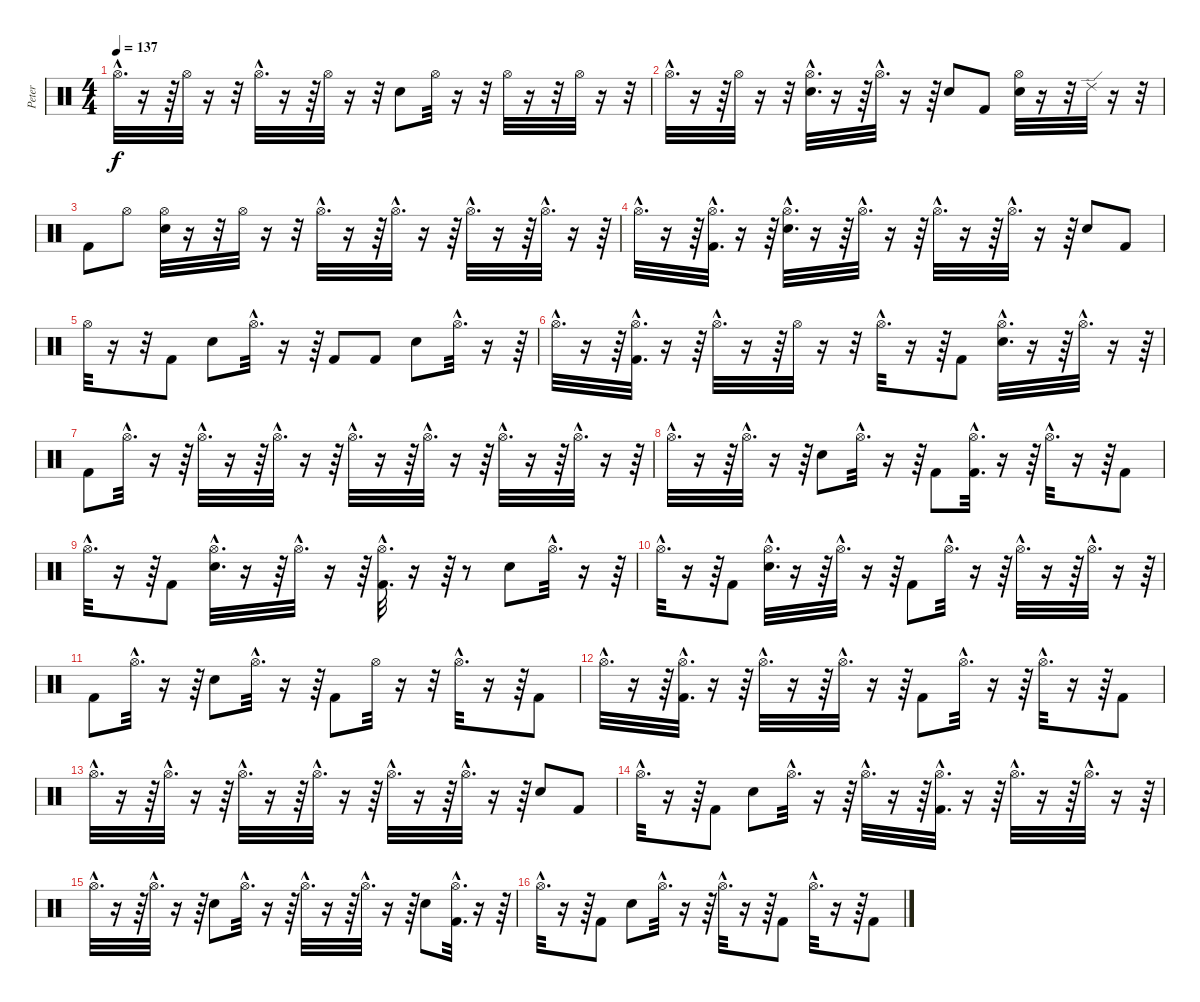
\track ("Peter" "Peter") {instrument percussion}
\staff {score}
\articulation defaults
\ts (4 4)
\tempo 137
\clef neutral
\ks c "Hi-Hat (open)"{hac}.32{d dy f}
r.16 r.64 "Hi-Hat (open)".32 r.16 r.32 "Hi-Hat (open)"{hac}.32{d} r.16 r.64 "Hi-Hat (open)".32 r.16 r.32 "Electric Snare (hit)".8 "Hi-Hat (open)".32 r.16 r.32 "Hi-Hat (open)".32 r.16 r.32 "Hi-Hat (open)".32 r.16 r.32 |
"Hi-Hat (open)"{hac}.32{d} r.16 r.64 "Hi-Hat (open)".32 r.16 r.32 ("Electric Snare (hit)"{hac} "Hi-Hat (open)"{hac}).32{d} r.16 r.64 "Hi-Hat (open)"{hac}.32{d} r.16 r.64 "Electric Snare (hit)".8 "Kick (hit) 2".8 ("Electric Snare (hit)" "Hi-Hat (open)").32 r.16 r.32 "Ride (edge) 2".32 r.16 r.32 |
"Kick (hit) 2".8 "Hi-Hat (open)".8 ("Electric Snare (hit)" "Hi-Hat (open)").32 r.16 r.32 "Hi-Hat (open)".32 r.16 r.32 "Hi-Hat (open)"{hac}.32{d} r.16 r.64 "Hi-Hat (open)"{hac}.32{d} r.16 r.64 "Hi-Hat (open)"{hac}.32{d} r.16 r.64 "Hi-Hat (open)"{hac}.32{d} r.16 r.64 |
"Hi-Hat (open)"{hac}.32{d} r.16 r.64 ("Kick (hit) 2"{hac} "Hi-Hat (open)"{hac}).32{d} r.16 r.64 ("Electric Snare (hit)"{hac} "Hi-Hat (open)"{hac}).32{d} r.16 r.64 "Hi-Hat (open)"{hac}.32{d} r.16 r.64 "Hi-Hat (open)"{hac}.32{d} r.16 r.64 "Hi-Hat (open)"{hac}.32{d} r.16 r.64 "Electric Snare (hit)".8 "Kick (hit) 2".8 |
"Hi-Hat (open)".32 r.16 r.32 "Kick (hit) 2".8 "Electric Snare (hit)".8 "Hi-Hat (open)"{hac}.32{d} r.16 r.64 "Kick (hit) 2".8 "Kick (hit) 2".8 "Electric Snare (hit)".8 "Hi-Hat (open)"{hac}.32{d} r.16 r.64 |
"Hi-Hat (open)"{hac}.32{d} r.16 r.64 ("Kick (hit) 2"{hac} "Hi-Hat (open)"{hac}).32{d} r.16 r.64 "Hi-Hat (open)"{hac}.32{d} r.16 r.64 "Hi-Hat (open)".32 r.16 r.32 "Hi-Hat (open)"{hac}.32{d} r.16 r.64 "Kick (hit) 2".8 ("Electric Snare (hit)"{hac} "Hi-Hat (open)"{hac}).32{d} r.16 r.64 "Hi-Hat (open)"{hac}.32{d} r.16 r.64 |
"Kick (hit) 2".8 "Hi-Hat (open)"{hac}.32{d} r.16 r.64 "Hi-Hat (open)"{hac}.32{d} r.16 r.64 "Hi-Hat (open)"{hac}.32{d} r.16 r.64 "Hi-Hat (open)"{hac}.32{d} r.16 r.64 "Hi-Hat (open)"{hac}.32{d} r.16 r.64 "Hi-Hat (open)"{hac}.32{d} r.16 r.64 "Hi-Hat (open)"{hac}.32{d} r.16 r.64 |
"Hi-Hat (open)"{hac}.32{d} r.16 r.64 "Hi-Hat (open)"{hac}.32{d} r.16 r.64 "Electric Snare (hit)".8 "Hi-Hat (open)"{hac}.32{d} r.16 r.64 "Kick (hit) 2".8 ("Kick (hit) 2"{hac} "Hi-Hat (open)"{hac}).32{d} r.16 r.64 "Hi-Hat (open)"{hac}.32{d} r.16 r.64 "Kick (hit) 2".8 |
"Hi-Hat (open)"{hac}.32{d} r.16 r.64 "Kick (hit) 2".8 ("Electric Snare (hit)"{hac} "Hi-Hat (open)"{hac}).32{d} r.16 r.64 "Hi-Hat (open)"{hac}.32{d} r.16 r.64 ("Kick (hit) 2"{hac} "Hi-Hat (open)"{hac}).32{d} r.16 r.64 r.8 "Electric Snare (hit)".8 "Hi-Hat (open)"{hac}.32{d} r.16 r.64 |
"Hi-Hat (open)"{hac}.32{d} r.16 r.64 "Kick (hit) 2".8 ("Electric Snare (hit)"{hac} "Hi-Hat (open)"{hac}).32{d} r.16 r.64 "Hi-Hat (open)"{hac}.32{d} r.16 r.64 "Kick (hit) 2".8 "Hi-Hat (open)"{hac}.32{d} r.16 r.64 "Hi-Hat (open)"{hac}.32{d} r.16 r.64 "Hi-Hat (open)"{hac}.32{d} r.16 r.64 |
"Kick (hit) 2".8 "Hi-Hat (open)"{hac}.32{d} r.16 r.64 "Electric Snare (hit)".8 "Hi-Hat (open)"{hac}.32{d} r.16 r.64 "Kick (hit) 2".8 "Hi-Hat (open)".32 r.16 r.32 "Hi-Hat (open)"{hac}.32{d} r.16 r.64 "Kick (hit) 2".8 |
"Hi-Hat (open)"{hac}.32{d} r.16 r.64 ("Kick (hit) 2"{hac} "Hi-Hat (open)"{hac}).32{d} r.16 r.64 "Hi-Hat (open)"{hac}.32{d} r.16 r.64 "Hi-Hat (open)"{hac}.32{d} r.16 r.64 "Kick (hit) 2".8 "Hi-Hat (open)"{hac}.32{d} r.16 r.64 "Hi-Hat (open)"{hac}.32{d} r.16 r.64 "Kick (hit) 2".8 |
"Hi-Hat (open)"{hac}.32{d} r.16 r.64 "Hi-Hat (open)"{hac}.32{d} r.16 r.64 "Hi-Hat (open)"{hac}.32{d} r.16 r.64 "Hi-Hat (open)"{hac}.32{d} r.16 r.64 "Hi-Hat (open)"{hac}.32{d} r.16 r.64 "Hi-Hat (open)"{hac}.32{d} r.16 r.64 "Electric Snare (hit)".8 "Kick (hit) 2".8 |
"Hi-Hat (open)"{hac}.32{d} r.16 r.64 "Kick (hit) 2".8 "Electric Snare (hit)".8 "Hi-Hat (open)"{hac}.32{d} r.16 r.64 "Hi-Hat (open)"{hac}.32{d} r.16 r.64 ("Kick (hit) 2"{hac} "Hi-Hat (open)"{hac}).32{d} r.16 r.64 "Hi-Hat (open)"{hac}.32{d} r.16 r.64 "Hi-Hat (open)"{hac}.32{d} r.16 r.64 |
"Hi-Hat (open)"{hac}.32{d} r.16 r.64 "Hi-Hat (open)"{hac}.32{d} r.16 r.64 "Electric Snare (hit)".8 "Hi-Hat (open)"{hac}.32{d} r.16 r.64 "Hi-Hat (open)"{hac}.32{d} r.16 r.64 "Hi-Hat (open)"{hac}.32{d} r.16 r.64 "Electric Snare (hit)".8 ("Kick (hit) 2"{hac} "Hi-Hat (open)"{hac}).32{d} r.16 r.64 |
"Hi-Hat (open)"{hac}.32{d} r.16 r.64 "Kick (hit) 2".8 "Electric Snare (hit)".8 "Hi-Hat (open)"{hac}.32{d} r.16 r.64 "Hi-Hat (open)"{hac}.32{d} r.16 r.64 "Kick (hit) 2".8 "Hi-Hat (open)"{hac}.32{d} r.16 r.64 "Kick (hit) 2".8
